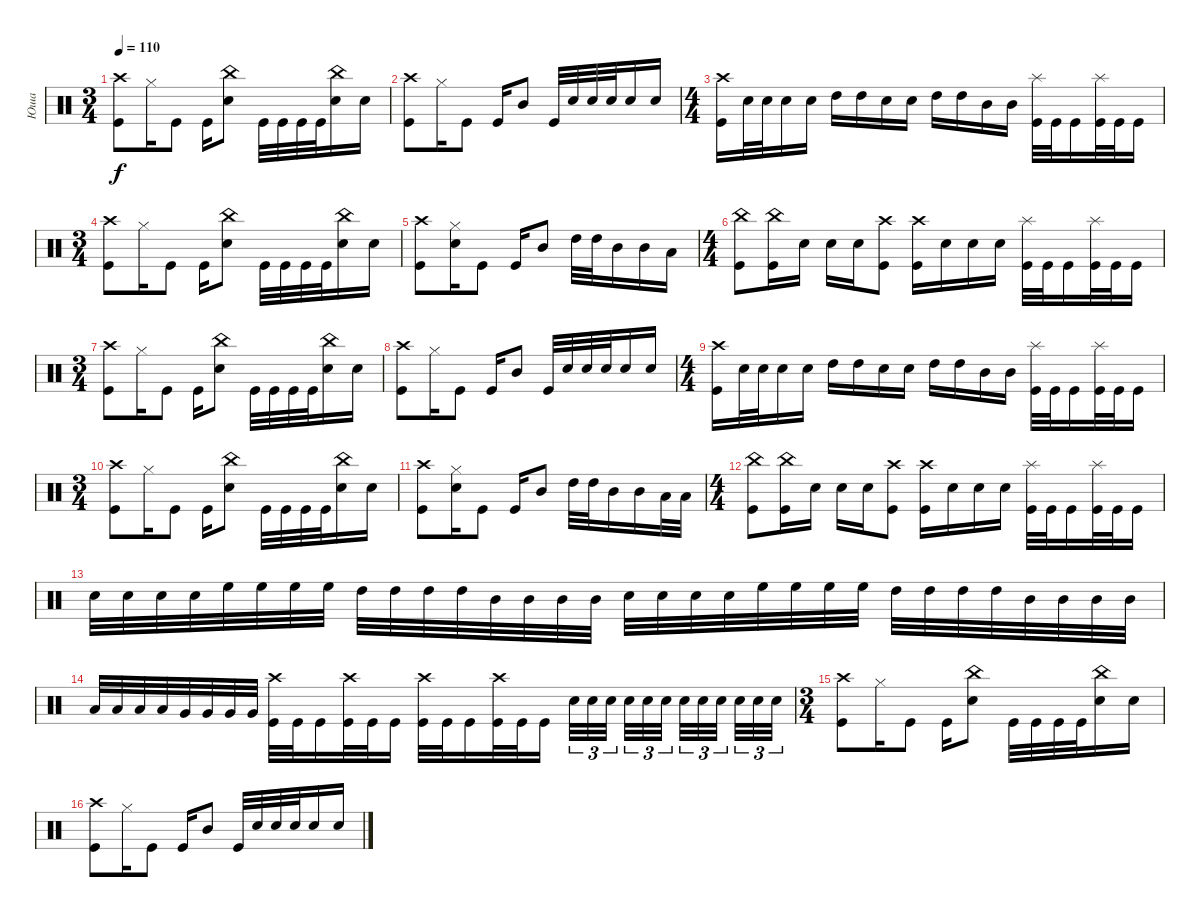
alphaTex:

\track ("Юша" "Юша") {instrument percussion}
\staff {score}
\articulation defaults
\ts (3 4)
\tempo 110
\clef neutral
\ks c
("Kick (hit)" "Crash high (hit)").8{dy f} "Hi-Hat (closed)".16 "Kick (hit)".8 "Kick (hit)".16 ("Snare (hit) 2" "China (hit)").8 "Kick (hit)".32 "Kick (hit)".32 "Kick (hit)".32 "Kick (hit)".32 ("Snare (hit) 2" "China (hit)").16 "Snare (hit) 2".16 |
("Kick (hit)" "Crash high (hit)").8 "Hi-Hat (closed)".16 "Kick (hit)".8 "Kick (hit)".16 "Mid Tom (hit)".8 "Kick (hit)".32 "Snare (hit) 2".32 "Snare (hit) 2".32 "Snare (hit) 2".32 "Snare (hit) 2".16 "Snare (hit) 2".16 |
\ts (4 4)
("Kick (hit)" "Crash high (hit)").16 "Snare (hit) 2".32 "Snare (hit) 2".32 "Snare (hit) 2".16 "Snare (hit) 2".16 "High Tom (hit)".16 "High Tom (hit)".16 "Snare (hit) 2".16 "Snare (hit) 2".16 "High Tom (hit)".16 "High Tom (hit)".16 "Mid Tom (hit)".16 "Mid Tom (hit)".16 ("Splash (hit)" "Kick (hit)").32 "Kick (hit)".32 "Kick (hit)".16 ("Splash (hit)" "Kick (hit)").32 "Kick (hit)".32 "Kick (hit)".16 |
\ts (3 4)
("Kick (hit)" "Crash high (hit)").8 "Hi-Hat (closed)".16 "Kick (hit)".8 "Kick (hit)".16 ("Snare (hit) 2" "China (hit)").8 "Kick (hit)".32 "Kick (hit)".32 "Kick (hit)".32 "Kick (hit)".32 ("Snare (hit) 2" "China (hit)").16 "Snare (hit) 2".16 |
("Kick (hit)" "Crash high (hit)").8 ("Snare (hit) 2" "Hi-Hat (closed)").16 "Kick (hit)".8 "Kick (hit)".16 "Mid Tom (hit)".8 "High Tom (hit)".32 "High Tom (hit)".32 "Mid Tom (hit)".16 "Mid Tom (hit)".16 "Low Tom (hit)".16 |
\ts (4 4)
("China (hit)" "Kick (hit)").8 ("Kick (hit)" "China (hit)").16 "Snare (hit) 2".16 "Snare (hit) 2".16 "Snare (hit) 2".16 ("Crash high (hit)" "Kick (hit)").8 ("Crash high (hit)" "Kick (hit)").16 "Snare (hit) 2".16 "Snare (hit) 2".16 "Snare (hit) 2".16 ("Splash (hit)" "Kick (hit)").32 "Kick (hit)".32 "Kick (hit)".16 ("Splash (hit)" "Kick (hit)").32 "Kick (hit)".32 "Kick (hit)".16 |
\ts (3 4)
("Kick (hit)" "Crash high (hit)").8 "Hi-Hat (closed)".16 "Kick (hit)".8 "Kick (hit)".16 ("Snare (hit) 2" "China (hit)").8 "Kick (hit)".32 "Kick (hit)".32 "Kick (hit)".32 "Kick (hit)".32 ("Snare (hit) 2" "China (hit)").16 "Snare (hit) 2".16 |
("Kick (hit)" "Crash high (hit)").8 "Hi-Hat (closed)".16 "Kick (hit)".8 "Kick (hit)".16 "Mid Tom (hit)".8 "Kick (hit)".32 "Snare (hit) 2".32 "Snare (hit) 2".32 "Snare (hit) 2".32 "Snare (hit) 2".16 "Snare (hit) 2".16 |
\ts (4 4)
("Kick (hit)" "Crash high (hit)").16 "Snare (hit) 2".32 "Snare (hit) 2".32 "Snare (hit) 2".16 "Snare (hit) 2".16 "High Tom (hit)".16 "High Tom (hit)".16 "Snare (hit) 2".16 "Snare (hit) 2".16 "High Tom (hit)".16 "High Tom (hit)".16 "Mid Tom (hit)".16 "Mid Tom (hit)".16 ("Splash (hit)" "Kick (hit)").32 "Kick (hit)".32 "Kick (hit)".16 ("Splash (hit)" "Kick (hit)").32 "Kick (hit)".32 "Kick (hit)".16 |
\ts (3 4)
("Kick (hit)" "Crash high (hit)").8 "Hi-Hat (closed)".16 "Kick (hit)".8 "Kick (hit)".16 ("Snare (hit) 2" "China (hit)").8 "Kick (hit)".32 "Kick (hit)".32 "Kick (hit)".32 "Kick (hit)".32 ("Snare (hit) 2" "China (hit)").16 "Snare (hit) 2".16 |
("Kick (hit)" "Crash high (hit)").8 ("Snare (hit) 2" "Hi-Hat (closed)").16 "Kick (hit)".8 "Kick (hit)".16 "Mid Tom (hit)".8 "High Tom (hit)".32 "High Tom (hit)".32 "Mid Tom (hit)".16 "Mid Tom (hit)".16 "Low Tom (hit)".32 "Low Tom (hit)".32 |
\ts (4 4)
("China (hit)" "Kick (hit)").8 ("Kick (hit)" "China (hit)").16 "Snare (hit) 2".16 "Snare (hit) 2".16 "Snare (hit) 2".16 ("Crash high (hit)" "Kick (hit)").8 ("Crash high (hit)" "Kick (hit)").16 "Snare (hit) 2".16 "Snare (hit) 2".16 "Snare (hit) 2".16 ("Splash (hit)" "Kick (hit)").32 "Kick (hit)".32 "Kick (hit)".16 ("Splash (hit)" "Kick (hit)").32 "Kick (hit)".32 "Kick (hit)".16 |
"Snare (hit) 2".32 "Snare (hit) 2".32 "Snare (hit) 2".32 "Snare (hit) 2".32 "High Floor Tom (hit)".32 "High Floor Tom (hit)".32 "High Floor Tom (hit)".32 "High Floor Tom (hit)".32 "High Tom (hit)".32 "High Tom (hit)".32 "High Tom (hit)".32 "High Tom (hit)".32 "Mid Tom (hit)".32 "Mid Tom (hit)".32 "Mid Tom (hit)".32 "Mid Tom (hit)".32 "Snare (hit) 2".32 "Snare (hit) 2".32 "Snare (hit) 2".32 "Snare (hit) 2".32 "High Floor Tom (hit)".32 "High Floor Tom (hit)".32 "High Floor Tom (hit)".32 "High Floor Tom (hit)".32 "High Tom (hit)".32 "High Tom (hit)".32 "High Tom (hit)".32 "High Tom (hit)".32 "Mid Tom (hit)".32 "Mid Tom (hit)".32 "Mid Tom (hit)".32 "Mid Tom (hit)".32 |
"Low Tom (hit)".32 "Low Tom (hit)".32 "Low Tom (hit)".32 "Low Tom (hit)".32 "Very Low Tom (hit)".32 "Very Low Tom (hit)".32 "Very Low Tom (hit)".32 "Very Low Tom (hit)".32 ("Crash high (hit)" "Kick (hit)").32 "Kick (hit)".32 "Kick (hit)".16 ("Crash high (hit)" "Kick (hit)").32 "Kick (hit)".32 "Kick (hit)".16 ("Crash high (hit)" "Kick (hit)").32 "Kick (hit)".32 "Kick (hit)".16 ("Crash high (hit)" "Kick (hit)").32 "Kick (hit)".32 "Kick (hit)".16 "Snare (hit) 2".32{tu (3 2)} "Snare (hit) 2".32{tu (3 2)} "Snare (hit) 2".32{tu (3 2) beam splitsecondary} "Snare (hit) 2".32{tu (3 2)} "Snare (hit) 2".32{tu (3 2)} "Snare (hit) 2".32{tu (3 2) beam splitsecondary} "Snare (hit) 2".32{tu (3 2)} "Snare (hit) 2".32{tu (3 2)} "Snare (hit) 2".32{tu (3 2) beam splitsecondary} "Snare (hit) 2".32{tu (3 2)} "Snare (hit) 2".32{tu (3 2)} "Snare (hit) 2".32{tu (3 2)} |
\ts (3 4)
("Kick (hit)" "Crash high (hit)").8 "Hi-Hat (closed)".16 "Kick (hit)".8 "Kick (hit)".16 ("Snare (hit) 2" "China (hit)").8 "Kick (hit)".32 "Kick (hit)".32 "Kick (hit)".32 "Kick (hit)".32 ("Snare (hit) 2" "China (hit)").16 "Snare (hit) 2".16 |
("Kick (hit)" "Crash high (hit)").8 "Hi-Hat (closed)".16 "Kick (hit)".8 "Kick (hit)".16 "Mid Tom (hit)".8 "Kick (hit)".32 "Snare (hit) 2".32 "Snare (hit) 2".32 "Snare (hit) 2".32 "Snare (hit) 2".16 "Snare (hit) 2".16
